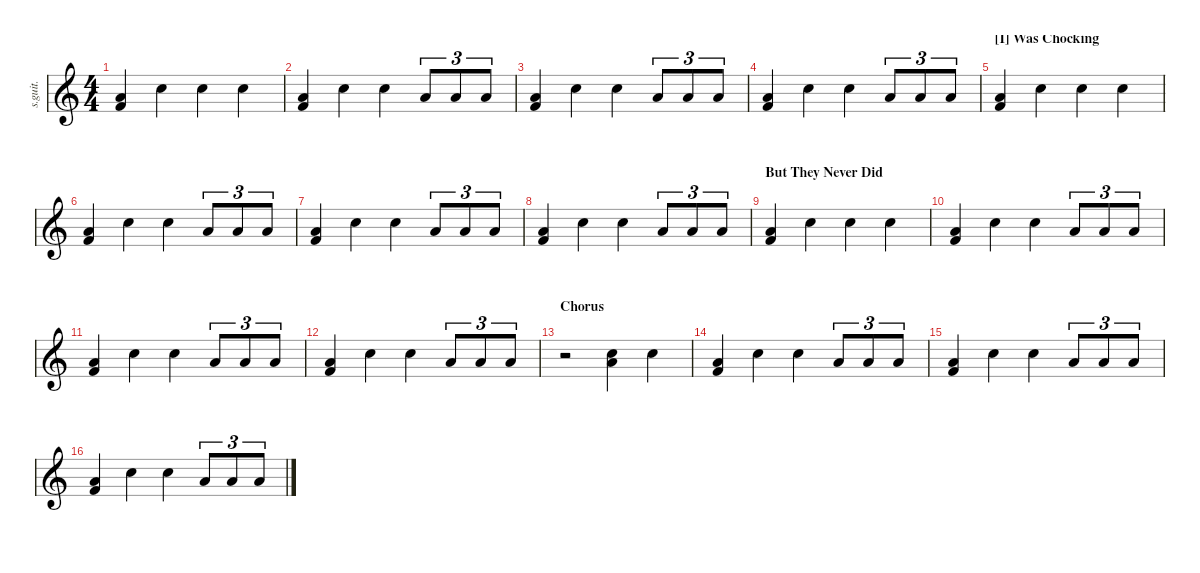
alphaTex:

\defaultSystemsLayout 4
\hideDynamics
\bracketExtendMode nobrackets
\track ("Daniel Platzman - Drums" "s.guit.") {instrument percussion}
\staff {score}
\articulation defaults
\ts (4 4)
\tempo (125 hide)
\clef g2
\ks c
("Low Floor Tom (hit)" "Kick (hit) 2").4{lyrics (0 "") lyrics (1 "") lyrics (2 "") lyrics (3 "") lyrics (4 "") dy f} "Hand Clap (hit)".4{lyrics (0 "") lyrics (1 "") lyrics (2 "") lyrics (3 "") lyrics (4 "")} "Electric Snare (hit)".4{lyrics (0 "") lyrics (1 "") lyrics (2 "") lyrics (3 "") lyrics (4 "")} "Hand Clap (hit)".4{lyrics (0 "") lyrics (1 "") lyrics (2 "") lyrics (3 "") lyrics (4 "")} |
("Low Floor Tom (hit)" "Kick (hit) 2").4{lyrics (0 "") lyrics (1 "") lyrics (2 "") lyrics (3 "") lyrics (4 "")} "Hand Clap (hit)".4{lyrics (0 "") lyrics (1 "") lyrics (2 "") lyrics (3 "") lyrics (4 "")} "Electric Snare (hit)".4{lyrics (0 "") lyrics (1 "") lyrics (2 "") lyrics (3 "") lyrics (4 "")} "Low Floor Tom (hit)".8{tu (3 2) lyrics (0 "") lyrics (1 "") lyrics (2 "") lyrics (3 "") lyrics (4 "")} "Low Floor Tom (hit)".8{tu (3 2) lyrics (0 "") lyrics (1 "") lyrics (2 "") lyrics (3 "") lyrics (4 "")} "Low Floor Tom (hit)".8{tu (3 2) lyrics (0 "") lyrics (1 "") lyrics (2 "") lyrics (3 "") lyrics (4 "")} |
("Low Floor Tom (hit)" "Kick (hit) 2").4{lyrics (0 "") lyrics (1 "") lyrics (2 "") lyrics (3 "") lyrics (4 "")} "Hand Clap (hit)".4{lyrics (0 "") lyrics (1 "") lyrics (2 "") lyrics (3 "") lyrics (4 "")} "Electric Snare (hit)".4{lyrics (0 "") lyrics (1 "") lyrics (2 "") lyrics (3 "") lyrics (4 "")} "Low Floor Tom (hit)".8{tu (3 2) lyrics (0 "") lyrics (1 "") lyrics (2 "") lyrics (3 "") lyrics (4 "")} "Low Floor Tom (hit)".8{tu (3 2) lyrics (0 "") lyrics (1 "") lyrics (2 "") lyrics (3 "") lyrics (4 "")} "Low Floor Tom (hit)".8{tu (3 2) lyrics (0 "") lyrics (1 "") lyrics (2 "") lyrics (3 "") lyrics (4 "")} |
("Low Floor Tom (hit)" "Kick (hit) 2").4{lyrics (0 "") lyrics (1 "") lyrics (2 "") lyrics (3 "") lyrics (4 "")} "Hand Clap (hit)".4{lyrics (0 "") lyrics (1 "") lyrics (2 "") lyrics (3 "") lyrics (4 "")} "Electric Snare (hit)".4{lyrics (0 "") lyrics (1 "") lyrics (2 "") lyrics (3 "") lyrics (4 "")} "Low Floor Tom (hit)".8{tu (3 2) lyrics (0 "") lyrics (1 "") lyrics (2 "") lyrics (3 "") lyrics (4 "")} "Low Floor Tom (hit)".8{tu (3 2) lyrics (0 "") lyrics (1 "") lyrics (2 "") lyrics (3 "") lyrics (4 "")} "Low Floor Tom (hit)".8{tu (3 2) lyrics (0 "") lyrics (1 "") lyrics (2 "") lyrics (3 "") lyrics (4 "")} |
\section ("I" "Was Chocking")
("Low Floor Tom (hit)" "Kick (hit) 2").4{lyrics (0 "") lyrics (1 "") lyrics (2 "") lyrics (3 "") lyrics (4 "")} "Hand Clap (hit)".4{lyrics (0 "") lyrics (1 "") lyrics (2 "") lyrics (3 "") lyrics (4 "")} "Electric Snare (hit)".4{lyrics (0 "") lyrics (1 "") lyrics (2 "") lyrics (3 "") lyrics (4 "")} "Hand Clap (hit)".4{lyrics (0 "") lyrics (1 "") lyrics (2 "") lyrics (3 "") lyrics (4 "")} |
("Low Floor Tom (hit)" "Kick (hit) 2").4{lyrics (0 "") lyrics (1 "") lyrics (2 "") lyrics (3 "") lyrics (4 "")} "Hand Clap (hit)".4{lyrics (0 "") lyrics (1 "") lyrics (2 "") lyrics (3 "") lyrics (4 "")} "Electric Snare (hit)".4{lyrics (0 "") lyrics (1 "") lyrics (2 "") lyrics (3 "") lyrics (4 "")} "Low Floor Tom (hit)".8{tu (3 2) lyrics (0 "") lyrics (1 "") lyrics (2 "") lyrics (3 "") lyrics (4 "")} "Low Floor Tom (hit)".8{tu (3 2) lyrics (0 "") lyrics (1 "") lyrics (2 "") lyrics (3 "") lyrics (4 "")} "Low Floor Tom (hit)".8{tu (3 2) lyrics (0 "") lyrics (1 "") lyrics (2 "") lyrics (3 "") lyrics (4 "")} |
("Low Floor Tom (hit)" "Kick (hit) 2").4{lyrics (0 "") lyrics (1 "") lyrics (2 "") lyrics (3 "") lyrics (4 "")} "Hand Clap (hit)".4{lyrics (0 "") lyrics (1 "") lyrics (2 "") lyrics (3 "") lyrics (4 "")} "Electric Snare (hit)".4{lyrics (0 "") lyrics (1 "") lyrics (2 "") lyrics (3 "") lyrics (4 "")} "Low Floor Tom (hit)".8{tu (3 2) lyrics (0 "") lyrics (1 "") lyrics (2 "") lyrics (3 "") lyrics (4 "")} "Low Floor Tom (hit)".8{tu (3 2) lyrics (0 "") lyrics (1 "") lyrics (2 "") lyrics (3 "") lyrics (4 "")} "Low Floor Tom (hit)".8{tu (3 2) lyrics (0 "") lyrics (1 "") lyrics (2 "") lyrics (3 "") lyrics (4 "")} |
("Low Floor Tom (hit)" "Kick (hit) 2").4{lyrics (0 "") lyrics (1 "") lyrics (2 "") lyrics (3 "") lyrics (4 "")} "Hand Clap (hit)".4{lyrics (0 "") lyrics (1 "") lyrics (2 "") lyrics (3 "") lyrics (4 "")} "Electric Snare (hit)".4{lyrics (0 "") lyrics (1 "") lyrics (2 "") lyrics (3 "") lyrics (4 "")} "Low Floor Tom (hit)".8{tu (3 2) lyrics (0 "") lyrics (1 "") lyrics (2 "") lyrics (3 "") lyrics (4 "")} "Low Floor Tom (hit)".8{tu (3 2) lyrics (0 "") lyrics (1 "") lyrics (2 "") lyrics (3 "") lyrics (4 "")} "Low Floor Tom (hit)".8{tu (3 2) lyrics (0 "") lyrics (1 "") lyrics (2 "") lyrics (3 "") lyrics (4 "")} |
\section ("" "But They Never Did")
("Low Floor Tom (hit)" "Kick (hit) 2").4{lyrics (0 "") lyrics (1 "") lyrics (2 "") lyrics (3 "") lyrics (4 "")} "Hand Clap (hit)".4{lyrics (0 "") lyrics (1 "") lyrics (2 "") lyrics (3 "") lyrics (4 "")} "Electric Snare (hit)".4{lyrics (0 "") lyrics (1 "") lyrics (2 "") lyrics (3 "") lyrics (4 "")} "Hand Clap (hit)".4{lyrics (0 "") lyrics (1 "") lyrics (2 "") lyrics (3 "") lyrics (4 "")} |
("Low Floor Tom (hit)" "Kick (hit) 2").4{lyrics (0 "") lyrics (1 "") lyrics (2 "") lyrics (3 "") lyrics (4 "")} "Hand Clap (hit)".4{lyrics (0 "") lyrics (1 "") lyrics (2 "") lyrics (3 "") lyrics (4 "")} "Electric Snare (hit)".4{lyrics (0 "") lyrics (1 "") lyrics (2 "") lyrics (3 "") lyrics (4 "")} "Low Floor Tom (hit)".8{tu (3 2) lyrics (0 "") lyrics (1 "") lyrics (2 "") lyrics (3 "") lyrics (4 "")} "Low Floor Tom (hit)".8{tu (3 2) lyrics (0 "") lyrics (1 "") lyrics (2 "") lyrics (3 "") lyrics (4 "")} "Low Floor Tom (hit)".8{tu (3 2) lyrics (0 "") lyrics (1 "") lyrics (2 "") lyrics (3 "") lyrics (4 "")} |
("Low Floor Tom (hit)" "Kick (hit) 2").4{lyrics (0 "") lyrics (1 "") lyrics (2 "") lyrics (3 "") lyrics (4 "")} "Hand Clap (hit)".4{lyrics (0 "") lyrics (1 "") lyrics (2 "") lyrics (3 "") lyrics (4 "")} "Electric Snare (hit)".4{lyrics (0 "") lyrics (1 "") lyrics (2 "") lyrics (3 "") lyrics (4 "")} "Low Floor Tom (hit)".8{tu (3 2) lyrics (0 "") lyrics (1 "") lyrics (2 "") lyrics (3 "") lyrics (4 "")} "Low Floor Tom (hit)".8{tu (3 2) lyrics (0 "") lyrics (1 "") lyrics (2 "") lyrics (3 "") lyrics (4 "")} "Low Floor Tom (hit)".8{tu (3 2) lyrics (0 "") lyrics (1 "") lyrics (2 "") lyrics (3 "") lyrics (4 "")} |
("Low Floor Tom (hit)" "Kick (hit) 2").4{lyrics (0 "") lyrics (1 "") lyrics (2 "") lyrics (3 "") lyrics (4 "")} "Hand Clap (hit)".4{lyrics (0 "") lyrics (1 "") lyrics (2 "") lyrics (3 "") lyrics (4 "")} "Electric Snare (hit)".4{lyrics (0 "") lyrics (1 "") lyrics (2 "") lyrics (3 "") lyrics (4 "")} "Low Floor Tom (hit)".8{tu (3 2) lyrics (0 "") lyrics (1 "") lyrics (2 "") lyrics (3 "") lyrics (4 "")} "Low Floor Tom (hit)".8{tu (3 2) lyrics (0 "") lyrics (1 "") lyrics (2 "") lyrics (3 "") lyrics (4 "")} "Low Floor Tom (hit)".8{tu (3 2) lyrics (0 "") lyrics (1 "") lyrics (2 "") lyrics (3 "") lyrics (4 "")} |
\section ("" "Chorus")
r.2 ("Low Floor Tom (hit)" "Electric Snare (hit)").4{lyrics (0 "") lyrics (1 "") lyrics (2 "") lyrics (3 "") lyrics (4 "")} "Hand Clap (hit)".4{lyrics (0 "") lyrics (1 "") lyrics (2 "") lyrics (3 "") lyrics (4 "")} |
("Low Floor Tom (hit)" "Kick (hit) 2").4{lyrics (0 "") lyrics (1 "") lyrics (2 "") lyrics (3 "") lyrics (4 "")} "Hand Clap (hit)".4{lyrics (0 "") lyrics (1 "") lyrics (2 "") lyrics (3 "") lyrics (4 "")} "Electric Snare (hit)".4{lyrics (0 "") lyrics (1 "") lyrics (2 "") lyrics (3 "") lyrics (4 "")} "Low Floor Tom (hit)".8{tu (3 2) lyrics (0 "") lyrics (1 "") lyrics (2 "") lyrics (3 "") lyrics (4 "")} "Low Floor Tom (hit)".8{tu (3 2) lyrics (0 "") lyrics (1 "") lyrics (2 "") lyrics (3 "") lyrics (4 "")} "Low Floor Tom (hit)".8{tu (3 2) lyrics (0 "") lyrics (1 "") lyrics (2 "") lyrics (3 "") lyrics (4 "")} |
("Low Floor Tom (hit)" "Kick (hit) 2").4{lyrics (0 "") lyrics (1 "") lyrics (2 "") lyrics (3 "") lyrics (4 "")} "Hand Clap (hit)".4{lyrics (0 "") lyrics (1 "") lyrics (2 "") lyrics (3 "") lyrics (4 "")} "Electric Snare (hit)".4{lyrics (0 "") lyrics (1 "") lyrics (2 "") lyrics (3 "") lyrics (4 "")} "Low Floor Tom (hit)".8{tu (3 2) lyrics (0 "") lyrics (1 "") lyrics (2 "") lyrics (3 "") lyrics (4 "")} "Low Floor Tom (hit)".8{tu (3 2) lyrics (0 "") lyrics (1 "") lyrics (2 "") lyrics (3 "") lyrics (4 "")} "Low Floor Tom (hit)".8{tu (3 2) lyrics (0 "") lyrics (1 "") lyrics (2 "") lyrics (3 "") lyrics (4 "")} |
("Low Floor Tom (hit)" "Kick (hit) 2").4{lyrics (0 "") lyrics (1 "") lyrics (2 "") lyrics (3 "") lyrics (4 "")} "Hand Clap (hit)".4{lyrics (0 "") lyrics (1 "") lyrics (2 "") lyrics (3 "") lyrics (4 "")} "Electric Snare (hit)".4{lyrics (0 "") lyrics (1 "") lyrics (2 "") lyrics (3 "") lyrics (4 "")} "Low Floor Tom (hit)".8{tu (3 2) lyrics (0 "") lyrics (1 "") lyrics (2 "") lyrics (3 "") lyrics (4 "")} "Low Floor Tom (hit)".8{tu (3 2) lyrics (0 "") lyrics (1 "") lyrics (2 "") lyrics (3 "") lyrics (4 "")} "Low Floor Tom (hit)".8{tu (3 2) lyrics (0 "") lyrics (1 "") lyrics (2 "") lyrics (3 "") lyrics (4 "")}
